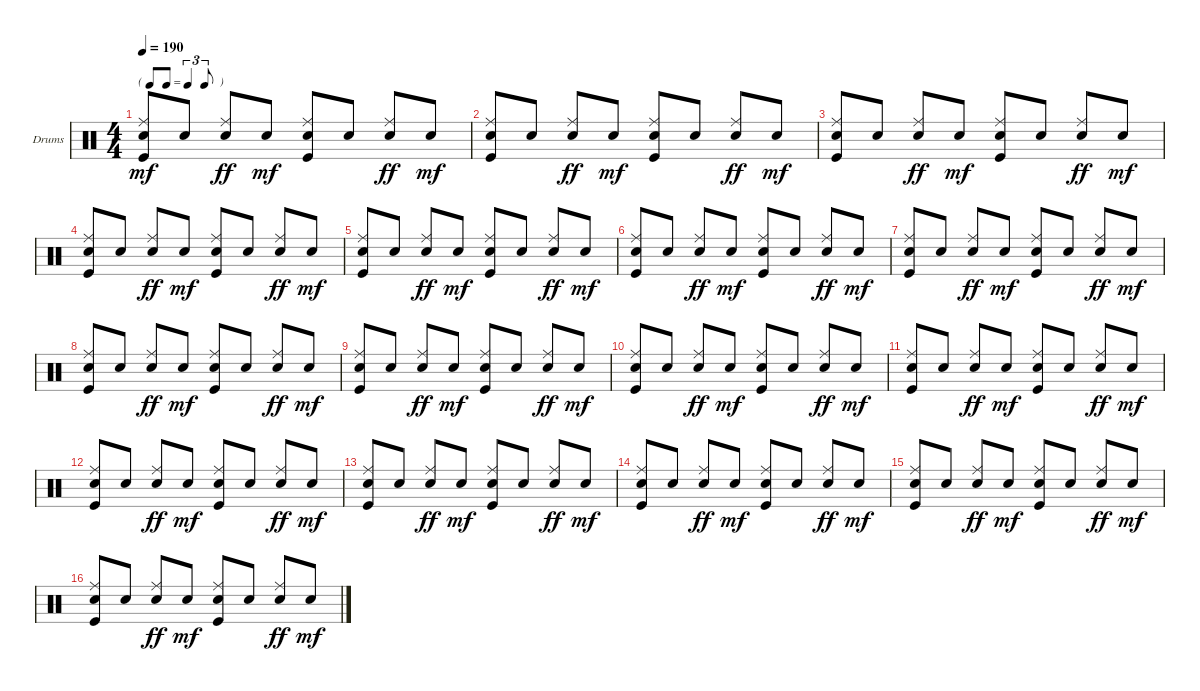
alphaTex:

\defaultSystemsLayout 4
\bracketExtendMode groupsimilarinstruments
\firstSystemTrackNameOrientation horizontal
\otherSystemsTrackNameOrientation horizontal
\track ("Drumkit" "Drums") {instrument percussion}
\staff {score}
\articulation defaults
\ts (4 4)
\tf triplet8th
\tempo 190
\clef neutral
\scale
0.333333
\ks c
("Kick (hit)" "Snare (hit) 2" "Ride (middle)").8{dy mf beam invert} "Snare (hit) 2".8 ("Snare (hit) 2" "Ride (middle)").8{dy ff beam invert} "Snare (hit) 2".8{dy mf} ("Kick (hit)" "Snare (hit) 2" "Ride (middle)").8{beam invert} "Snare (hit) 2".8 ("Snare (hit) 2" "Ride (middle)").8{dy ff beam invert} "Snare (hit) 2".8{dy mf} |
\scale
0.333333 ("Kick (hit)" "Snare (hit) 2" "Ride (middle)").8{beam invert} "Snare (hit) 2".8 ("Snare (hit) 2" "Ride (middle)").8{dy ff beam invert} "Snare (hit) 2".8{dy mf} ("Kick (hit)" "Snare (hit) 2" "Ride (middle)").8{beam invert} "Snare (hit) 2".8 ("Snare (hit) 2" "Ride (middle)").8{dy ff beam invert} "Snare (hit) 2".8{dy mf} |
\scale
0.333333 ("Kick (hit)" "Snare (hit) 2" "Ride (middle)").8{beam invert} "Snare (hit) 2".8 ("Snare (hit) 2" "Ride (middle)").8{dy ff beam invert} "Snare (hit) 2".8{dy mf} ("Kick (hit)" "Snare (hit) 2" "Ride (middle)").8{beam invert} "Snare (hit) 2".8 ("Snare (hit) 2" "Ride (middle)").8{dy ff beam invert} "Snare (hit) 2".8{dy mf} |
\scale
0.333333 ("Kick (hit)" "Snare (hit) 2" "Ride (middle)").8{beam invert} "Snare (hit) 2".8 ("Snare (hit) 2" "Ride (middle)").8{dy ff beam invert} "Snare (hit) 2".8{dy mf} ("Kick (hit)" "Snare (hit) 2" "Ride (middle)").8{beam invert} "Snare (hit) 2".8 ("Snare (hit) 2" "Ride (middle)").8{dy ff beam invert} "Snare (hit) 2".8{dy mf} |
\scale
0.333333 ("Kick (hit)" "Snare (hit) 2" "Ride (middle)").8{beam invert} "Snare (hit) 2".8 ("Snare (hit) 2" "Ride (middle)").8{dy ff beam invert} "Snare (hit) 2".8{dy mf} ("Kick (hit)" "Snare (hit) 2" "Ride (middle)").8{beam invert} "Snare (hit) 2".8 ("Snare (hit) 2" "Ride (middle)").8{dy ff beam invert} "Snare (hit) 2".8{dy mf} |
\scale
0.333333 ("Kick (hit)" "Snare (hit) 2" "Ride (middle)").8{beam invert} "Snare (hit) 2".8 ("Snare (hit) 2" "Ride (middle)").8{dy ff beam invert} "Snare (hit) 2".8{dy mf} ("Kick (hit)" "Snare (hit) 2" "Ride (middle)").8{beam invert} "Snare (hit) 2".8 ("Snare (hit) 2" "Ride (middle)").8{dy ff beam invert} "Snare (hit) 2".8{dy mf} |
\scale
0.333333 ("Kick (hit)" "Snare (hit) 2" "Ride (middle)").8{beam invert} "Snare (hit) 2".8 ("Snare (hit) 2" "Ride (middle)").8{dy ff beam invert} "Snare (hit) 2".8{dy mf} ("Kick (hit)" "Snare (hit) 2" "Ride (middle)").8{beam invert} "Snare (hit) 2".8 ("Snare (hit) 2" "Ride (middle)").8{dy ff beam invert} "Snare (hit) 2".8{dy mf} |
\scale
0.333333 ("Kick (hit)" "Snare (hit) 2" "Ride (middle)").8{beam invert} "Snare (hit) 2".8 ("Snare (hit) 2" "Ride (middle)").8{dy ff beam invert} "Snare (hit) 2".8{dy mf} ("Kick (hit)" "Snare (hit) 2" "Ride (middle)").8{beam invert} "Snare (hit) 2".8 ("Snare (hit) 2" "Ride (middle)").8{dy ff beam invert} "Snare (hit) 2".8{dy mf} |
\scale
0.333333 ("Kick (hit)" "Snare (hit) 2" "Ride (middle)").8{beam invert} "Snare (hit) 2".8 ("Snare (hit) 2" "Ride (middle)").8{dy ff beam invert} "Snare (hit) 2".8{dy mf} ("Kick (hit)" "Snare (hit) 2" "Ride (middle)").8{beam invert} "Snare (hit) 2".8 ("Snare (hit) 2" "Ride (middle)").8{dy ff beam invert} "Snare (hit) 2".8{dy mf} |
\scale
0.333333 ("Kick (hit)" "Snare (hit) 2" "Ride (middle)").8{beam invert} "Snare (hit) 2".8 ("Snare (hit) 2" "Ride (middle)").8{dy ff beam invert} "Snare (hit) 2".8{dy mf} ("Kick (hit)" "Snare (hit) 2" "Ride (middle)").8{beam invert} "Snare (hit) 2".8 ("Snare (hit) 2" "Ride (middle)").8{dy ff beam invert} "Snare (hit) 2".8{dy mf} |
\scale
0.333333 ("Kick (hit)" "Snare (hit) 2" "Ride (middle)").8{beam invert} "Snare (hit) 2".8 ("Snare (hit) 2" "Ride (middle)").8{dy ff beam invert} "Snare (hit) 2".8{dy mf} ("Kick (hit)" "Snare (hit) 2" "Ride (middle)").8{beam invert} "Snare (hit) 2".8 ("Snare (hit) 2" "Ride (middle)").8{dy ff beam invert} "Snare (hit) 2".8{dy mf} |
\scale
0.333333 ("Kick (hit)" "Snare (hit) 2" "Ride (middle)").8{beam invert} "Snare (hit) 2".8 ("Snare (hit) 2" "Ride (middle)").8{dy ff beam invert} "Snare (hit) 2".8{dy mf} ("Kick (hit)" "Snare (hit) 2" "Ride (middle)").8{beam invert} "Snare (hit) 2".8 ("Snare (hit) 2" "Ride (middle)").8{dy ff beam invert} "Snare (hit) 2".8{dy mf} |
\scale
0.333333 ("Kick (hit)" "Snare (hit) 2" "Ride (middle)").8{beam invert} "Snare (hit) 2".8 ("Snare (hit) 2" "Ride (middle)").8{dy ff beam invert} "Snare (hit) 2".8{dy mf} ("Kick (hit)" "Snare (hit) 2" "Ride (middle)").8{beam invert} "Snare (hit) 2".8 ("Snare (hit) 2" "Ride (middle)").8{dy ff beam invert} "Snare (hit) 2".8{dy mf} |
\scale
0.333333 ("Kick (hit)" "Snare (hit) 2" "Ride (middle)").8{beam invert} "Snare (hit) 2".8 ("Snare (hit) 2" "Ride (middle)").8{dy ff beam invert} "Snare (hit) 2".8{dy mf} ("Kick (hit)" "Snare (hit) 2" "Ride (middle)").8{beam invert} "Snare (hit) 2".8 ("Snare (hit) 2" "Ride (middle)").8{dy ff beam invert} "Snare (hit) 2".8{dy mf} |
\scale
0.333333 ("Kick (hit)" "Snare (hit) 2" "Ride (middle)").8{beam invert} "Snare (hit) 2".8 ("Snare (hit) 2" "Ride (middle)").8{dy ff beam invert} "Snare (hit) 2".8{dy mf} ("Kick (hit)" "Snare (hit) 2" "Ride (middle)").8{beam invert} "Snare (hit) 2".8 ("Snare (hit) 2" "Ride (middle)").8{dy ff beam invert} "Snare (hit) 2".8{dy mf} |
\scale
0.333333 ("Kick (hit)" "Snare (hit) 2" "Ride (middle)").8{beam invert} "Snare (hit) 2".8 ("Snare (hit) 2" "Ride (middle)").8{dy ff beam invert} "Snare (hit) 2".8{dy mf} ("Kick (hit)" "Snare (hit) 2" "Ride (middle)").8{beam invert} "Snare (hit) 2".8 ("Snare (hit) 2" "Ride (middle)").8{dy ff beam invert} "Snare (hit) 2".8{dy mf}
